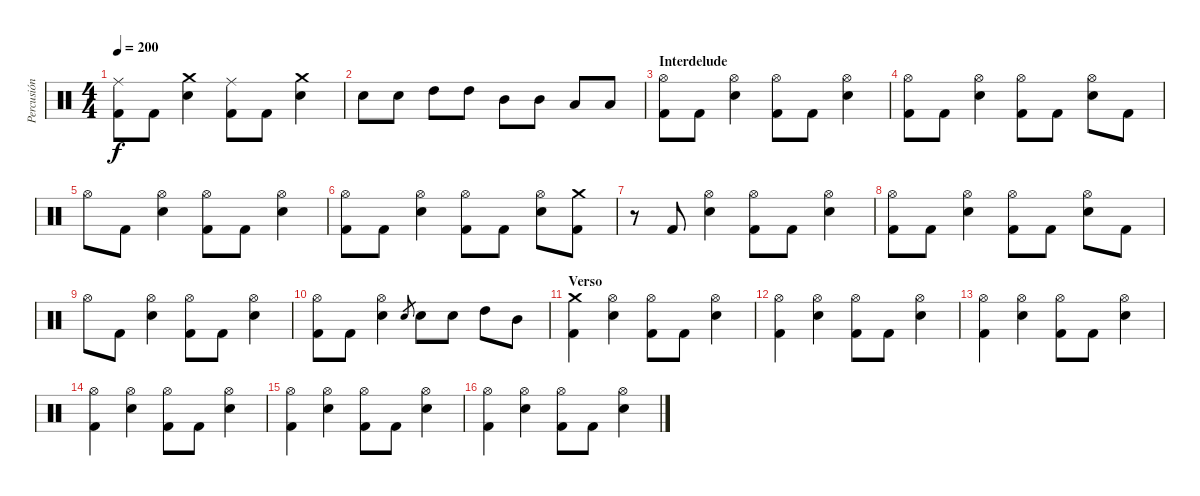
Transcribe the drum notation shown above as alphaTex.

\track ("Percusión" "Percusión") {instrument percussion}
\staff {score}
\articulation defaults
\ts (4 4)
\tempo 200
\clef neutral
\ks c
("Kick (hit) 2" "Ride (middle)").8{dy f} "Kick (hit) 2".8 ("Snare (hit) 2" "Crash medium (hit)").4 ("Kick (hit) 2" "Ride (middle)").8 "Kick (hit) 2".8 ("Snare (hit) 2" "Crash medium (hit)").4 |
"Snare (hit) 2".8 "Snare (hit) 2".8 "High Tom (hit)".8 "High Tom (hit)".8 "Mid Tom (hit)".8 "Mid Tom (hit)".8 "Low Tom (hit)".8 "Low Tom (hit)".8 |
\section ("" "Interdelude")
("Kick (hit) 2" "Hi-Hat (open)").8 "Kick (hit) 2".8 ("Hi-Hat (open)" "Snare (hit) 2").4 ("Hi-Hat (open)" "Kick (hit) 2").8 "Kick (hit) 2".8 ("Hi-Hat (open)" "Snare (hit) 2").4 |
("Hi-Hat (open)" "Kick (hit) 2").8 "Kick (hit) 2".8 ("Hi-Hat (open)" "Snare (hit) 2").4 ("Hi-Hat (open)" "Kick (hit) 2").8 "Kick (hit) 2".8 ("Hi-Hat (open)" "Snare (hit) 2").8 "Kick (hit) 2".8 |
"Hi-Hat (open)".8 "Kick (hit) 2".8 ("Hi-Hat (open)" "Snare (hit) 2").4 ("Hi-Hat (open)" "Kick (hit) 2").8 "Kick (hit) 2".8 ("Hi-Hat (open)" "Snare (hit) 2").4 |
("Hi-Hat (open)" "Kick (hit) 2").8 "Kick (hit) 2".8 ("Hi-Hat (open)" "Snare (hit) 2").4 ("Hi-Hat (open)" "Kick (hit) 2").8 "Kick (hit) 2".8 ("Hi-Hat (open)" "Snare (hit) 2").8 ("Kick (hit) 2" "Crash medium (hit)").8 |
r.8 "Kick (hit) 2".8 ("Hi-Hat (open)" "Snare (hit) 2").4 ("Hi-Hat (open)" "Kick (hit) 2").8 "Kick (hit) 2".8 ("Hi-Hat (open)" "Snare (hit) 2").4 |
("Hi-Hat (open)" "Kick (hit) 2").8 "Kick (hit) 2".8 ("Hi-Hat (open)" "Snare (hit) 2").4 ("Hi-Hat (open)" "Kick (hit) 2").8 "Kick (hit) 2".8 ("Hi-Hat (open)" "Snare (hit) 2").8 "Kick (hit) 2".8 |
"Hi-Hat (open)".8 "Kick (hit) 2".8 ("Hi-Hat (open)" "Snare (hit) 2").4 ("Hi-Hat (open)" "Kick (hit) 2").8 "Kick (hit) 2".8 ("Hi-Hat (open)" "Snare (hit) 2").4 |
("Hi-Hat (open)" "Kick (hit) 2").8 "Kick (hit) 2".8 ("Hi-Hat (open)" "Snare (hit) 2").4 "Snare (hit) 2".8{gr} "Snare (hit) 2".8 "Snare (hit) 2".8 "High Tom (hit)".8 "Mid Tom (hit)".8 |
\section ("" "Verso")
("Crash medium (hit)" "Kick (hit) 2").4 ("Snare (hit) 2" "Hi-Hat (open)").4 ("Hi-Hat (open)" "Kick (hit) 2").8 "Kick (hit) 2".8 ("Snare (hit) 2" "Hi-Hat (open)").4 |
("Hi-Hat (open)" "Kick (hit) 2").4 ("Snare (hit) 2" "Hi-Hat (open)").4 ("Hi-Hat (open)" "Kick (hit) 2").8 "Kick (hit) 2".8 ("Snare (hit) 2" "Hi-Hat (open)").4 |
("Hi-Hat (open)" "Kick (hit) 2").4 ("Snare (hit) 2" "Hi-Hat (open)").4 ("Hi-Hat (open)" "Kick (hit) 2").8 "Kick (hit) 2".8 ("Snare (hit) 2" "Hi-Hat (open)").4 |
("Hi-Hat (open)" "Kick (hit) 2").4 ("Snare (hit) 2" "Hi-Hat (open)").4 ("Hi-Hat (open)" "Kick (hit) 2").8 "Kick (hit) 2".8 ("Snare (hit) 2" "Hi-Hat (open)").4 |
("Hi-Hat (open)" "Kick (hit) 2").4 ("Snare (hit) 2" "Hi-Hat (open)").4 ("Hi-Hat (open)" "Kick (hit) 2").8 "Kick (hit) 2".8 ("Snare (hit) 2" "Hi-Hat (open)").4 |
("Hi-Hat (open)" "Kick (hit) 2").4 ("Snare (hit) 2" "Hi-Hat (open)").4 ("Hi-Hat (open)" "Kick (hit) 2").8 "Kick (hit) 2".8 ("Snare (hit) 2" "Hi-Hat (open)").4
